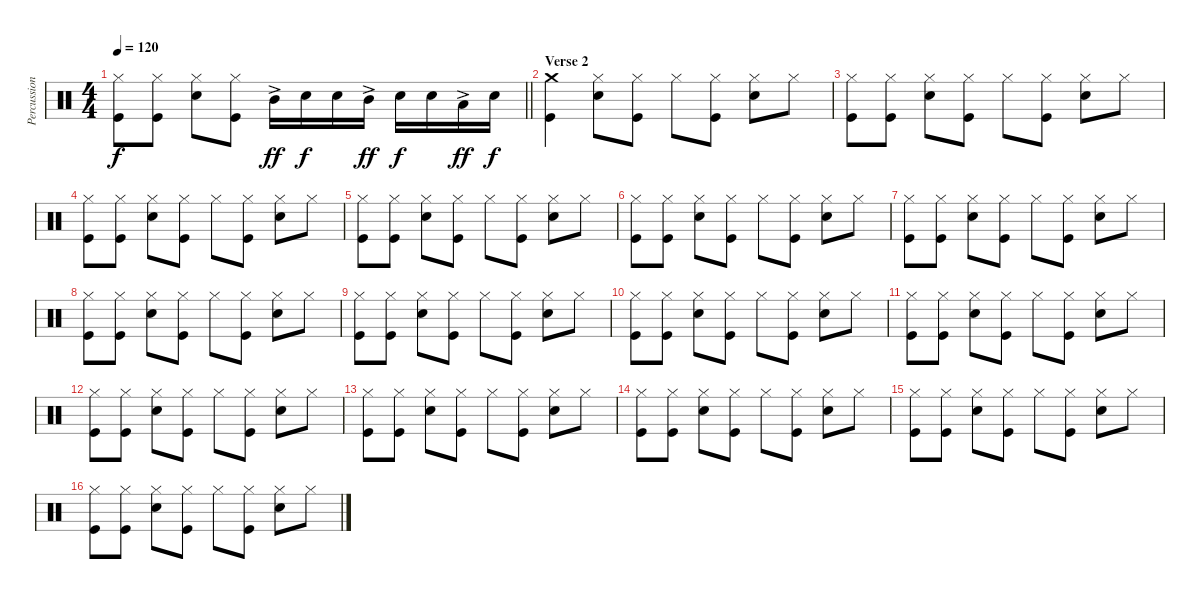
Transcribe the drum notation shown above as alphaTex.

\track ("Percussion" "Percussion") {instrument percussion}
\staff {score}
\articulation defaults
\ts (4 4)
\tempo 120
\clef neutral
\barLineRight lightlight
\ks c
("Hi-Hat (closed)" "Kick (hit)").8{dy f} ("Hi-Hat (closed)" "Kick (hit)").8 ("Hi-Hat (closed)" "Snare (hit) 2").8 ("Hi-Hat (closed)" "Kick (hit)").8 "Mid Tom (hit)"{ac}.16{dy ff} "Snare (hit) 2".16{dy f} "Snare (hit) 2".16 "Mid Tom (hit)"{ac}.16{dy ff} "Snare (hit) 2".16{dy f} "Snare (hit) 2".16 "Low Tom (hit)"{ac}.16{dy ff} "Snare (hit) 2".16{dy f} |
\section ("" "Verse 2")
("Crash medium (hit)" "Kick (hit)").4 ("Hi-Hat (closed)" "Snare (hit) 2").8 ("Hi-Hat (closed)" "Kick (hit)").8 "Hi-Hat (closed)".8 ("Hi-Hat (closed)" "Kick (hit)").8 ("Hi-Hat (closed)" "Snare (hit) 2").8 "Hi-Hat (closed)".8 |
("Hi-Hat (closed)" "Kick (hit)").8 ("Hi-Hat (closed)" "Kick (hit)").8 ("Hi-Hat (closed)" "Snare (hit) 2").8 ("Hi-Hat (closed)" "Kick (hit)").8 "Hi-Hat (closed)".8 ("Hi-Hat (closed)" "Kick (hit)").8 ("Hi-Hat (closed)" "Snare (hit) 2").8 "Hi-Hat (closed)".8 |
("Hi-Hat (closed)" "Kick (hit)").8 ("Hi-Hat (closed)" "Kick (hit)").8 ("Hi-Hat (closed)" "Snare (hit) 2").8 ("Hi-Hat (closed)" "Kick (hit)").8 "Hi-Hat (closed)".8 ("Hi-Hat (closed)" "Kick (hit)").8 ("Hi-Hat (closed)" "Snare (hit) 2").8 "Hi-Hat (closed)".8 |
("Hi-Hat (closed)" "Kick (hit)").8 ("Hi-Hat (closed)" "Kick (hit)").8 ("Hi-Hat (closed)" "Snare (hit) 2").8 ("Hi-Hat (closed)" "Kick (hit)").8 "Hi-Hat (closed)".8 ("Hi-Hat (closed)" "Kick (hit)").8 ("Hi-Hat (closed)" "Snare (hit) 2").8 "Hi-Hat (closed)".8 |
("Hi-Hat (closed)" "Kick (hit)").8 ("Hi-Hat (closed)" "Kick (hit)").8 ("Hi-Hat (closed)" "Snare (hit) 2").8 ("Hi-Hat (closed)" "Kick (hit)").8 "Hi-Hat (closed)".8 ("Hi-Hat (closed)" "Kick (hit)").8 ("Hi-Hat (closed)" "Snare (hit) 2").8 "Hi-Hat (closed)".8 |
("Hi-Hat (closed)" "Kick (hit)").8 ("Hi-Hat (closed)" "Kick (hit)").8 ("Hi-Hat (closed)" "Snare (hit) 2").8 ("Hi-Hat (closed)" "Kick (hit)").8 "Hi-Hat (closed)".8 ("Hi-Hat (closed)" "Kick (hit)").8 ("Hi-Hat (closed)" "Snare (hit) 2").8 "Hi-Hat (closed)".8 |
("Hi-Hat (closed)" "Kick (hit)").8 ("Hi-Hat (closed)" "Kick (hit)").8 ("Hi-Hat (closed)" "Snare (hit) 2").8 ("Hi-Hat (closed)" "Kick (hit)").8 "Hi-Hat (closed)".8 ("Hi-Hat (closed)" "Kick (hit)").8 ("Hi-Hat (closed)" "Snare (hit) 2").8 "Hi-Hat (closed)".8 |
("Hi-Hat (closed)" "Kick (hit)").8 ("Hi-Hat (closed)" "Kick (hit)").8 ("Hi-Hat (closed)" "Snare (hit) 2").8 ("Hi-Hat (closed)" "Kick (hit)").8 "Hi-Hat (closed)".8 ("Hi-Hat (closed)" "Kick (hit)").8 ("Hi-Hat (closed)" "Snare (hit) 2").8 "Hi-Hat (closed)".8 |
("Hi-Hat (closed)" "Kick (hit)").8 ("Hi-Hat (closed)" "Kick (hit)").8 ("Hi-Hat (closed)" "Snare (hit) 2").8 ("Hi-Hat (closed)" "Kick (hit)").8 "Hi-Hat (closed)".8 ("Hi-Hat (closed)" "Kick (hit)").8 ("Hi-Hat (closed)" "Snare (hit) 2").8 "Hi-Hat (closed)".8 |
("Hi-Hat (closed)" "Kick (hit)").8 ("Hi-Hat (closed)" "Kick (hit)").8 ("Hi-Hat (closed)" "Snare (hit) 2").8 ("Hi-Hat (closed)" "Kick (hit)").8 "Hi-Hat (closed)".8 ("Hi-Hat (closed)" "Kick (hit)").8 ("Hi-Hat (closed)" "Snare (hit) 2").8 "Hi-Hat (closed)".8 |
("Hi-Hat (closed)" "Kick (hit)").8 ("Hi-Hat (closed)" "Kick (hit)").8 ("Hi-Hat (closed)" "Snare (hit) 2").8 ("Hi-Hat (closed)" "Kick (hit)").8 "Hi-Hat (closed)".8 ("Hi-Hat (closed)" "Kick (hit)").8 ("Hi-Hat (closed)" "Snare (hit) 2").8 "Hi-Hat (closed)".8 |
("Hi-Hat (closed)" "Kick (hit)").8 ("Hi-Hat (closed)" "Kick (hit)").8 ("Hi-Hat (closed)" "Snare (hit) 2").8 ("Hi-Hat (closed)" "Kick (hit)").8 "Hi-Hat (closed)".8 ("Hi-Hat (closed)" "Kick (hit)").8 ("Hi-Hat (closed)" "Snare (hit) 2").8 "Hi-Hat (closed)".8 |
("Hi-Hat (closed)" "Kick (hit)").8 ("Hi-Hat (closed)" "Kick (hit)").8 ("Hi-Hat (closed)" "Snare (hit) 2").8 ("Hi-Hat (closed)" "Kick (hit)").8 "Hi-Hat (closed)".8 ("Hi-Hat (closed)" "Kick (hit)").8 ("Hi-Hat (closed)" "Snare (hit) 2").8 "Hi-Hat (closed)".8 |
("Hi-Hat (closed)" "Kick (hit)").8 ("Hi-Hat (closed)" "Kick (hit)").8 ("Hi-Hat (closed)" "Snare (hit) 2").8 ("Hi-Hat (closed)" "Kick (hit)").8 "Hi-Hat (closed)".8 ("Hi-Hat (closed)" "Kick (hit)").8 ("Hi-Hat (closed)" "Snare (hit) 2").8 "Hi-Hat (closed)".8 |
("Hi-Hat (closed)" "Kick (hit)").8 ("Hi-Hat (closed)" "Kick (hit)").8 ("Hi-Hat (closed)" "Snare (hit) 2").8 ("Hi-Hat (closed)" "Kick (hit)").8 "Hi-Hat (closed)".8 ("Hi-Hat (closed)" "Kick (hit)").8 ("Hi-Hat (closed)" "Snare (hit) 2").8 "Hi-Hat (closed)".8
